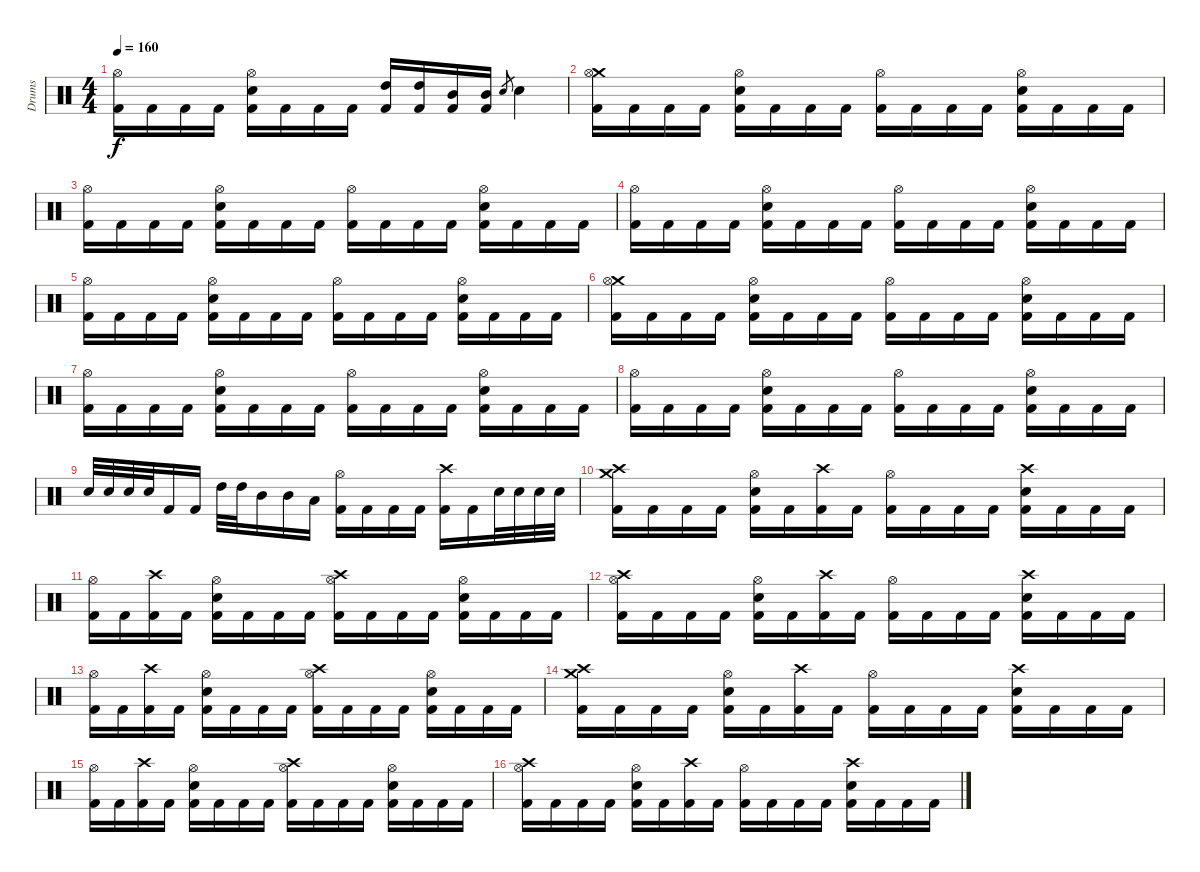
\track ("Drums" "Drums") {instrument percussion}
\staff {score}
\articulation defaults
\ts (4 4)
\tempo 160
\clef neutral
\ks c
("Hi-Hat (open)" "Kick (hit) 2").16{dy f} "Kick (hit) 2".16 "Kick (hit) 2".16 "Kick (hit) 2".16 ("Hi-Hat (open)" "Kick (hit) 2" "Snare (hit) 2").16 "Kick (hit) 2".16 "Kick (hit) 2".16 "Kick (hit) 2".16 ("Kick (hit) 2" "High Tom (hit)").16 ("Kick (hit) 2" "High Tom (hit)").16 ("Kick (hit) 2" "Mid Tom (hit)").16 ("Kick (hit) 2" "Mid Tom (hit)").16 "Snare (hit) 2".8{gr} "Snare (hit) 2".4 |
("Crash medium (hit)" "Hi-Hat (open)" "Kick (hit) 2").16 "Kick (hit) 2".16 "Kick (hit) 2".16 "Kick (hit) 2".16 ("Hi-Hat (open)" "Kick (hit) 2" "Snare (hit) 2").16 "Kick (hit) 2".16 "Kick (hit) 2".16 "Kick (hit) 2".16 ("Hi-Hat (open)" "Kick (hit) 2").16 "Kick (hit) 2".16 "Kick (hit) 2".16 "Kick (hit) 2".16 ("Hi-Hat (open)" "Kick (hit) 2" "Snare (hit) 2").16 "Kick (hit) 2".16 "Kick (hit) 2".16 "Kick (hit) 2".16 |
("Hi-Hat (open)" "Kick (hit) 2").16 "Kick (hit) 2".16 "Kick (hit) 2".16 "Kick (hit) 2".16 ("Hi-Hat (open)" "Kick (hit) 2" "Snare (hit) 2").16 "Kick (hit) 2".16 "Kick (hit) 2".16 "Kick (hit) 2".16 ("Hi-Hat (open)" "Kick (hit) 2").16 "Kick (hit) 2".16 "Kick (hit) 2".16 "Kick (hit) 2".16 ("Hi-Hat (open)" "Kick (hit) 2" "Snare (hit) 2").16 "Kick (hit) 2".16 "Kick (hit) 2".16 "Kick (hit) 2".16 |
("Hi-Hat (open)" "Kick (hit) 2").16 "Kick (hit) 2".16 "Kick (hit) 2".16 "Kick (hit) 2".16 ("Hi-Hat (open)" "Kick (hit) 2" "Snare (hit) 2").16 "Kick (hit) 2".16 "Kick (hit) 2".16 "Kick (hit) 2".16 ("Hi-Hat (open)" "Kick (hit) 2").16 "Kick (hit) 2".16 "Kick (hit) 2".16 "Kick (hit) 2".16 ("Hi-Hat (open)" "Kick (hit) 2" "Snare (hit) 2").16 "Kick (hit) 2".16 "Kick (hit) 2".16 "Kick (hit) 2".16 |
("Hi-Hat (open)" "Kick (hit) 2").16 "Kick (hit) 2".16 "Kick (hit) 2".16 "Kick (hit) 2".16 ("Hi-Hat (open)" "Kick (hit) 2" "Snare (hit) 2").16 "Kick (hit) 2".16 "Kick (hit) 2".16 "Kick (hit) 2".16 ("Hi-Hat (open)" "Kick (hit) 2").16 "Kick (hit) 2".16 "Kick (hit) 2".16 "Kick (hit) 2".16 ("Hi-Hat (open)" "Kick (hit) 2" "Snare (hit) 2").16 "Kick (hit) 2".16 "Kick (hit) 2".16 "Kick (hit) 2".16 |
("Crash medium (hit)" "Hi-Hat (open)" "Kick (hit) 2").16 "Kick (hit) 2".16 "Kick (hit) 2".16 "Kick (hit) 2".16 ("Hi-Hat (open)" "Kick (hit) 2" "Snare (hit) 2").16 "Kick (hit) 2".16 "Kick (hit) 2".16 "Kick (hit) 2".16 ("Hi-Hat (open)" "Kick (hit) 2").16 "Kick (hit) 2".16 "Kick (hit) 2".16 "Kick (hit) 2".16 ("Hi-Hat (open)" "Kick (hit) 2" "Snare (hit) 2").16 "Kick (hit) 2".16 "Kick (hit) 2".16 "Kick (hit) 2".16 |
("Hi-Hat (open)" "Kick (hit) 2").16 "Kick (hit) 2".16 "Kick (hit) 2".16 "Kick (hit) 2".16 ("Hi-Hat (open)" "Kick (hit) 2" "Snare (hit) 2").16 "Kick (hit) 2".16 "Kick (hit) 2".16 "Kick (hit) 2".16 ("Hi-Hat (open)" "Kick (hit) 2").16 "Kick (hit) 2".16 "Kick (hit) 2".16 "Kick (hit) 2".16 ("Hi-Hat (open)" "Kick (hit) 2" "Snare (hit) 2").16 "Kick (hit) 2".16 "Kick (hit) 2".16 "Kick (hit) 2".16 |
("Hi-Hat (open)" "Kick (hit) 2").16 "Kick (hit) 2".16 "Kick (hit) 2".16 "Kick (hit) 2".16 ("Hi-Hat (open)" "Kick (hit) 2" "Snare (hit) 2").16 "Kick (hit) 2".16 "Kick (hit) 2".16 "Kick (hit) 2".16 ("Hi-Hat (open)" "Kick (hit) 2").16 "Kick (hit) 2".16 "Kick (hit) 2".16 "Kick (hit) 2".16 ("Hi-Hat (open)" "Kick (hit) 2" "Snare (hit) 2").16 "Kick (hit) 2".16 "Kick (hit) 2".16 "Kick (hit) 2".16 |
"Snare (hit) 2".32 "Snare (hit) 2".32 "Snare (hit) 2".32 "Snare (hit) 2".32 "Kick (hit) 2".16 "Kick (hit) 2".16 "High Tom (hit)".32 "High Tom (hit)".32 "Mid Tom (hit)".16 "Mid Tom (hit)".16 "Low Tom (hit)".16 ("Hi-Hat (open)" "Kick (hit) 2").16 "Kick (hit) 2".16 "Kick (hit) 2".16 "Kick (hit) 2".16 ("Crash high (hit)" "Kick (hit) 2").16 "Kick (hit) 2".16 "Snare (hit) 2".32 "Snare (hit) 2".32 "Snare (hit) 2".32 "Snare (hit) 2".32 |
("Crash medium (hit)" "Crash high (hit)" "Kick (hit) 2").16 "Kick (hit) 2".16 "Kick (hit) 2".16 "Kick (hit) 2".16 ("Hi-Hat (open)" "Kick (hit) 2" "Snare (hit) 2").16 "Kick (hit) 2".16 ("Crash high (hit)" "Kick (hit) 2").16 "Kick (hit) 2".16 ("Hi-Hat (open)" "Kick (hit) 2").16 "Kick (hit) 2".16 "Kick (hit) 2".16 "Kick (hit) 2".16 ("Crash high (hit)" "Kick (hit) 2" "Snare (hit) 2").16 "Kick (hit) 2".16 "Kick (hit) 2".16 "Kick (hit) 2".16 |
("Hi-Hat (open)" "Kick (hit) 2").16 "Kick (hit) 2".16 ("Crash high (hit)" "Kick (hit) 2").16 "Kick (hit) 2".16 ("Hi-Hat (open)" "Kick (hit) 2" "Snare (hit) 2").16 "Kick (hit) 2".16 "Kick (hit) 2".16 "Kick (hit) 2".16 ("Crash high (hit)" "Hi-Hat (open)" "Kick (hit) 2").16 "Kick (hit) 2".16 "Kick (hit) 2".16 "Kick (hit) 2".16 ("Hi-Hat (open)" "Kick (hit) 2" "Snare (hit) 2").16 "Kick (hit) 2".16 "Kick (hit) 2".16 "Kick (hit) 2".16 |
("Crash high (hit)" "Hi-Hat (open)" "Kick (hit) 2").16 "Kick (hit) 2".16 "Kick (hit) 2".16 "Kick (hit) 2".16 ("Hi-Hat (open)" "Kick (hit) 2" "Snare (hit) 2").16 "Kick (hit) 2".16 ("Crash high (hit)" "Kick (hit) 2").16 "Kick (hit) 2".16 ("Hi-Hat (open)" "Kick (hit) 2").16 "Kick (hit) 2".16 "Kick (hit) 2".16 "Kick (hit) 2".16 ("Crash high (hit)" "Kick (hit) 2" "Snare (hit) 2").16 "Kick (hit) 2".16 "Kick (hit) 2".16 "Kick (hit) 2".16 |
("Hi-Hat (open)" "Kick (hit) 2").16 "Kick (hit) 2".16 ("Crash high (hit)" "Kick (hit) 2").16 "Kick (hit) 2".16 ("Hi-Hat (open)" "Kick (hit) 2" "Snare (hit) 2").16 "Kick (hit) 2".16 "Kick (hit) 2".16 "Kick (hit) 2".16 ("Crash high (hit)" "Hi-Hat (open)" "Kick (hit) 2").16 "Kick (hit) 2".16 "Kick (hit) 2".16 "Kick (hit) 2".16 ("Hi-Hat (open)" "Kick (hit) 2" "Snare (hit) 2").16 "Kick (hit) 2".16 "Kick (hit) 2".16 "Kick (hit) 2".16 |
("Crash medium (hit)" "Crash high (hit)" "Kick (hit) 2").16 "Kick (hit) 2".16 "Kick (hit) 2".16 "Kick (hit) 2".16 ("Hi-Hat (open)" "Kick (hit) 2" "Snare (hit) 2").16 "Kick (hit) 2".16 ("Crash high (hit)" "Kick (hit) 2").16 "Kick (hit) 2".16 ("Hi-Hat (open)" "Kick (hit) 2").16 "Kick (hit) 2".16 "Kick (hit) 2".16 "Kick (hit) 2".16 ("Crash high (hit)" "Kick (hit) 2" "Snare (hit) 2").16 "Kick (hit) 2".16 "Kick (hit) 2".16 "Kick (hit) 2".16 |
("Hi-Hat (open)" "Kick (hit) 2").16 "Kick (hit) 2".16 ("Crash high (hit)" "Kick (hit) 2").16 "Kick (hit) 2".16 ("Hi-Hat (open)" "Kick (hit) 2" "Snare (hit) 2").16 "Kick (hit) 2".16 "Kick (hit) 2".16 "Kick (hit) 2".16 ("Crash high (hit)" "Hi-Hat (open)" "Kick (hit) 2").16 "Kick (hit) 2".16 "Kick (hit) 2".16 "Kick (hit) 2".16 ("Hi-Hat (open)" "Kick (hit) 2" "Snare (hit) 2").16 "Kick (hit) 2".16 "Kick (hit) 2".16 "Kick (hit) 2".16 |
("Crash high (hit)" "Hi-Hat (open)" "Kick (hit) 2").16 "Kick (hit) 2".16 "Kick (hit) 2".16 "Kick (hit) 2".16 ("Hi-Hat (open)" "Kick (hit) 2" "Snare (hit) 2").16 "Kick (hit) 2".16 ("Crash high (hit)" "Kick (hit) 2").16 "Kick (hit) 2".16 ("Hi-Hat (open)" "Kick (hit) 2").16 "Kick (hit) 2".16 "Kick (hit) 2".16 "Kick (hit) 2".16 ("Crash high (hit)" "Kick (hit) 2" "Snare (hit) 2").16 "Kick (hit) 2".16 "Kick (hit) 2".16 "Kick (hit) 2".16
